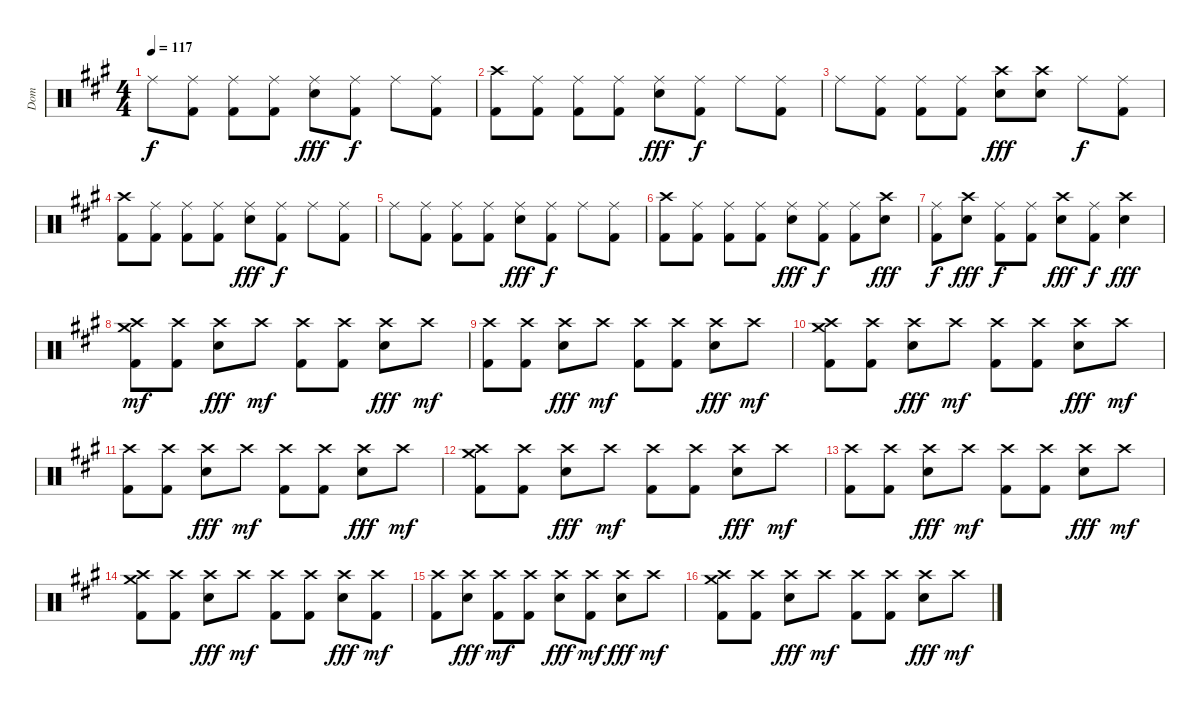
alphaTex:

\track ("Dom" "Dom") {instrument percussion}
\staff {score}
\articulation defaults
\ts (4 4)
\tempo 117
\clef neutral
\ks a "Ride (middle)".8{dy f}
("Ride (middle)" "Kick (hit) 2").8 ("Ride (middle)" "Kick (hit) 2").8 ("Ride (middle)" "Kick (hit) 2").8 ("Ride (middle)" "Snare (hit) 2").8{dy fff} ("Ride (middle)" "Kick (hit) 2").8{dy f} "Ride (middle)".8 ("Ride (middle)" "Kick (hit) 2").8 |
("Crash high (hit)" "Kick (hit) 2").8 ("Ride (middle)" "Kick (hit) 2").8 ("Ride (middle)" "Kick (hit) 2").8 ("Ride (middle)" "Kick (hit) 2").8 ("Ride (middle)" "Snare (hit) 2").8{dy fff} ("Ride (middle)" "Kick (hit) 2").8{dy f} "Ride (middle)".8 ("Ride (middle)" "Kick (hit) 2").8 |
"Ride (middle)".8 ("Ride (middle)" "Kick (hit) 2").8 ("Ride (middle)" "Kick (hit) 2").8 ("Ride (middle)" "Kick (hit) 2").8 ("Crash high (hit)" "Snare (hit) 2").8{dy fff} ("Crash high (hit)" "Snare (hit) 2").8 "Ride (middle)".8{dy f} ("Ride (middle)" "Kick (hit) 2").8 |
("Crash high (hit)" "Kick (hit) 2").8 ("Ride (middle)" "Kick (hit) 2").8 ("Ride (middle)" "Kick (hit) 2").8 ("Ride (middle)" "Kick (hit) 2").8 ("Ride (middle)" "Snare (hit) 2").8{dy fff} ("Ride (middle)" "Kick (hit) 2").8{dy f} "Ride (middle)".8 ("Ride (middle)" "Kick (hit) 2").8 |
"Ride (middle)".8 ("Ride (middle)" "Kick (hit) 2").8 ("Ride (middle)" "Kick (hit) 2").8 ("Ride (middle)" "Kick (hit) 2").8 ("Ride (middle)" "Snare (hit) 2").8{dy fff} ("Ride (middle)" "Kick (hit) 2").8{dy f} "Ride (middle)".8 ("Ride (middle)" "Kick (hit) 2").8 |
("Crash high (hit)" "Kick (hit) 2").8 ("Ride (middle)" "Kick (hit) 2").8 ("Ride (middle)" "Kick (hit) 2").8 ("Ride (middle)" "Kick (hit) 2").8 ("Ride (middle)" "Snare (hit) 2").8{dy fff} ("Ride (middle)" "Kick (hit) 2").8{dy f} ("Ride (middle)" "Kick (hit) 2").8 ("Crash high (hit)" "Snare (hit) 2").8{dy fff} |
("Ride (middle)" "Kick (hit) 2").8{dy f} ("Crash high (hit)" "Snare (hit) 2").8{dy fff} ("Ride (middle)" "Kick (hit) 2").8{dy f} ("Ride (middle)" "Kick (hit) 2").8 ("Crash high (hit)" "Snare (hit) 2").8{dy fff} ("Ride (middle)" "Kick (hit) 2").8{dy f} ("Crash high (hit)" "Snare (hit) 2").4{dy fff} |
("Crash medium (hit)" "Crash high (hit)" "Kick (hit) 2").8{dy mf} ("Crash high (hit)" "Kick (hit) 2").8 ("Crash high (hit)" "Snare (hit) 2").8{dy fff} "Crash high (hit)".8{dy mf} ("Crash high (hit)" "Kick (hit) 2").8 ("Crash high (hit)" "Kick (hit) 2").8 ("Crash high (hit)" "Snare (hit) 2").8{dy fff} "Crash high (hit)".8{dy mf} |
("Crash high (hit)" "Kick (hit) 2").8 ("Crash high (hit)" "Kick (hit) 2").8 ("Crash high (hit)" "Snare (hit) 2").8{dy fff} "Crash high (hit)".8{dy mf} ("Crash high (hit)" "Kick (hit) 2").8 ("Crash high (hit)" "Kick (hit) 2").8 ("Crash high (hit)" "Snare (hit) 2").8{dy fff} "Crash high (hit)".8{dy mf} |
("Crash medium (hit)" "Crash high (hit)" "Kick (hit) 2").8 ("Crash high (hit)" "Kick (hit) 2").8 ("Crash high (hit)" "Snare (hit) 2").8{dy fff} "Crash high (hit)".8{dy mf} ("Crash high (hit)" "Kick (hit) 2").8 ("Crash high (hit)" "Kick (hit) 2").8 ("Crash high (hit)" "Snare (hit) 2").8{dy fff} "Crash high (hit)".8{dy mf} |
("Crash high (hit)" "Kick (hit) 2").8 ("Crash high (hit)" "Kick (hit) 2").8 ("Crash high (hit)" "Snare (hit) 2").8{dy fff} "Crash high (hit)".8{dy mf} ("Crash high (hit)" "Kick (hit) 2").8 ("Crash high (hit)" "Kick (hit) 2").8 ("Crash high (hit)" "Snare (hit) 2").8{dy fff} "Crash high (hit)".8{dy mf} |
("Crash medium (hit)" "Crash high (hit)" "Kick (hit) 2").8 ("Crash high (hit)" "Kick (hit) 2").8 ("Crash high (hit)" "Snare (hit) 2").8{dy fff} "Crash high (hit)".8{dy mf} ("Crash high (hit)" "Kick (hit) 2").8 ("Crash high (hit)" "Kick (hit) 2").8 ("Crash high (hit)" "Snare (hit) 2").8{dy fff} "Crash high (hit)".8{dy mf} |
("Crash high (hit)" "Kick (hit) 2").8 ("Crash high (hit)" "Kick (hit) 2").8 ("Crash high (hit)" "Snare (hit) 2").8{dy fff} "Crash high (hit)".8{dy mf} ("Crash high (hit)" "Kick (hit) 2").8 ("Crash high (hit)" "Kick (hit) 2").8 ("Crash high (hit)" "Snare (hit) 2").8{dy fff} "Crash high (hit)".8{dy mf} |
("Crash medium (hit)" "Crash high (hit)" "Kick (hit) 2").8 ("Crash high (hit)" "Kick (hit) 2").8 ("Crash high (hit)" "Snare (hit) 2").8{dy fff} "Crash high (hit)".8{dy mf} ("Crash high (hit)" "Kick (hit) 2").8 ("Crash high (hit)" "Kick (hit) 2").8 ("Crash high (hit)" "Snare (hit) 2").8{dy fff} ("Crash high (hit)" "Kick (hit) 2").8{dy mf} |
("Crash high (hit)" "Kick (hit) 2").8 ("Crash high (hit)" "Snare (hit) 2").8{dy fff} ("Crash high (hit)" "Kick (hit) 2").8{dy mf} ("Crash high (hit)" "Kick (hit) 2").8 ("Crash high (hit)" "Snare (hit) 2").8{dy fff} ("Crash high (hit)" "Kick (hit) 2").8{dy mf} ("Crash high (hit)" "Snare (hit) 2").8{dy fff} "Crash high (hit)".8{dy mf} |
("Crash medium (hit)" "Crash high (hit)" "Kick (hit) 2").8 ("Crash high (hit)" "Kick (hit) 2").8 ("Crash high (hit)" "Snare (hit) 2").8{dy fff} "Crash high (hit)".8{dy mf} ("Crash high (hit)" "Kick (hit) 2").8 ("Crash high (hit)" "Kick (hit) 2").8 ("Crash high (hit)" "Snare (hit) 2").8{dy fff} "Crash high (hit)".8{dy mf}
